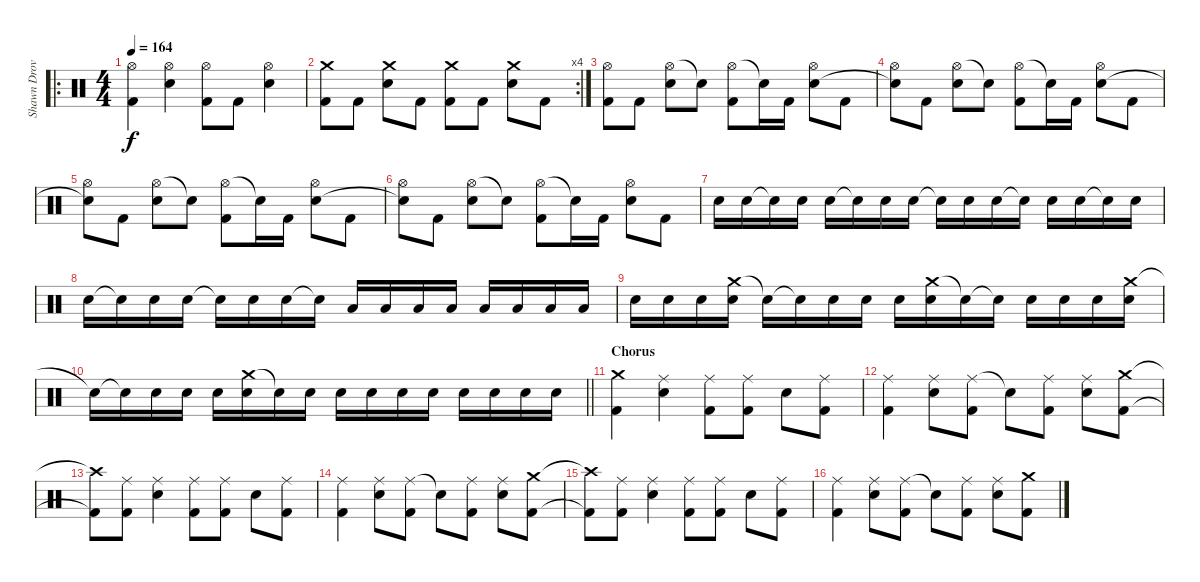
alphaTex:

\track ("Shawn Drover" "Shawn Drov") {instrument percussion}
\staff {score}
\articulation defaults
\ro
\ts (4 4)
\tempo 164
\clef neutral
\ks c
("Hi-Hat (open)" "Kick (hit) 2").4{dy f} ("Hi-Hat (open)" "Snare (hit) 2").4 ("Hi-Hat (open)" "Kick (hit) 2").8 "Kick (hit) 2".8 ("Hi-Hat (open)" "Snare (hit) 2").4 |
\rc 4
("Crash medium (hit)" "Kick (hit) 2").8 "Kick (hit) 2".8 ("Crash medium (hit)" "Snare (hit) 2").8 "Kick (hit) 2".8 ("Crash medium (hit)" "Kick (hit) 2").8 "Kick (hit) 2".8 ("Crash medium (hit)" "Snare (hit) 2").8 "Kick (hit) 2".8 |
("Hi-Hat (open)" "Kick (hit) 2").8 "Kick (hit) 2".8 ("Hi-Hat (open)" "Snare (hit) 2").8 "Snare (hit)"{t}.8 ("Hi-Hat (open)" "Kick (hit) 2").8 "Snare (hit)"{t}.16 "Kick (hit) 2".16 ("Hi-Hat (open)" "Snare (hit) 2").8 "Kick (hit) 2".8 |
("Hi-Hat (open)" "Snare (hit)"{t}).8 "Kick (hit) 2".8 ("Hi-Hat (open)" "Snare (hit) 2").8 "Snare (hit)"{t}.8 ("Hi-Hat (open)" "Kick (hit) 2").8 "Snare (hit)"{t}.16 "Kick (hit) 2".16 ("Hi-Hat (open)" "Snare (hit) 2").8 "Kick (hit) 2".8 |
("Hi-Hat (open)" "Snare (hit)"{t}).8 "Kick (hit) 2".8 ("Hi-Hat (open)" "Snare (hit) 2").8 "Snare (hit)"{t}.8 ("Hi-Hat (open)" "Kick (hit) 2").8 "Snare (hit)"{t}.16 "Kick (hit) 2".16 ("Hi-Hat (open)" "Snare (hit) 2").8 "Kick (hit) 2".8 |
("Hi-Hat (open)" "Snare (hit)"{t}).8 "Kick (hit) 2".8 ("Hi-Hat (open)" "Snare (hit) 2").8 "Snare (hit)"{t}.8 ("Hi-Hat (open)" "Kick (hit) 2").8 "Snare (hit)"{t}.16 "Kick (hit) 2".16 ("Hi-Hat (open)" "Snare (hit) 2").8 "Kick (hit) 2".8 |
"Snare (hit) 2".16 "Snare (hit) 2".16 "Snare (hit)"{t}.16 "Snare (hit) 2".16 "Snare (hit) 2".16 "Snare (hit)"{t}.16 "Snare (hit) 2".16 "Snare (hit) 2".16 "Snare (hit)"{t}.16 "Snare (hit) 2".16 "Snare (hit) 2".16 "Snare (hit)"{t}.16 "Snare (hit) 2".16 "Snare (hit) 2".16 "Snare (hit)"{t}.16 "Snare (hit) 2".16 |
"Snare (hit) 2".16 "Snare (hit)"{t}.16 "Snare (hit) 2".16 "Snare (hit) 2".16 "Snare (hit)"{t}.16 "Snare (hit) 2".16 "Snare (hit) 2".16 "Snare (hit)"{t}.16 "Low Tom (hit)".16 "Low Tom (hit)".16 "Low Tom (hit)".16 "Low Tom (hit)".16 "Low Tom (hit)".16 "Low Tom (hit)".16 "Low Tom (hit)".16 "Low Tom (hit)".16 |
"Snare (hit) 2".16 "Snare (hit) 2".16 "Snare (hit) 2".16 ("Crash medium (hit)" "Snare (hit) 2").16 "Snare (hit)"{t}.16 "Snare (hit)"{t}.16 "Snare (hit) 2".16 "Snare (hit) 2".16 "Snare (hit) 2".16 ("Crash medium (hit)" "Snare (hit) 2").16 "Snare (hit)"{t}.16 "Snare (hit) 2"{t}.16 "Snare (hit) 2".16 "Snare (hit) 2".16 "Snare (hit) 2".16 ("Crash medium (hit)" "Snare (hit) 2").16 |
\barLineRight lightlight "Snare (hit)"{t}.16 "Snare (hit)"{t}.16 "Snare (hit) 2".16 "Snare (hit) 2".16 "Snare (hit) 2".16
("Crash medium (hit)" "Snare (hit) 2").16 "Snare (hit)"{t}.16 "Snare (hit) 2".16 "Snare (hit) 2".16 "Snare (hit) 2".16 "Snare (hit) 2".16 "Snare (hit) 2".16 "Snare (hit) 2".16 "Snare (hit) 2".16 "Snare (hit) 2".16 "Snare (hit) 2".16 |
\section ("" "Chorus")
("Crash medium (hit)" "Kick (hit) 2").4 ("Ride (middle)" "Snare (hit) 2").4 ("Ride (middle)" "Kick (hit) 2").8 ("Ride (middle)" "Kick (hit) 2").8 "Snare (hit) 2".8 ("Ride (middle)" "Kick (hit) 2").8 |
("Ride (middle)" "Kick (hit) 2").4 ("Ride (middle)" "Snare (hit) 2").8 ("Ride (middle)" "Kick (hit) 2").8 "Snare (hit)"{t}.8 ("Ride (middle)" "Kick (hit) 2").8 ("Ride (middle)" "Snare (hit) 2").8 ("Crash medium (hit)" "Kick (hit) 2").8 |
("Crash high (hit)"{t} "Kick (hit) 2"{t}).8 ("Ride (middle)" "Kick (hit) 2").8 ("Ride (middle)" "Snare (hit) 2").4 ("Ride (middle)" "Kick (hit) 2").8 ("Ride (middle)" "Kick (hit) 2").8 "Snare (hit) 2".8 ("Ride (middle)" "Kick (hit) 2").8 |
("Ride (middle)" "Kick (hit) 2").4 ("Ride (middle)" "Snare (hit) 2").8 ("Ride (middle)" "Kick (hit) 2").8 "Snare (hit)"{t}.8 ("Ride (middle)" "Kick (hit) 2").8 ("Ride (middle)" "Snare (hit) 2").8 ("Crash medium (hit)" "Kick (hit) 2").8 |
("Crash high (hit)"{t} "Kick (hit) 2"{t}).8 ("Ride (middle)" "Kick (hit) 2").8 ("Ride (middle)" "Snare (hit) 2").4 ("Ride (middle)" "Kick (hit) 2").8 ("Ride (middle)" "Kick (hit) 2").8 "Snare (hit) 2".8 ("Ride (middle)" "Kick (hit) 2").8 |
("Ride (middle)" "Kick (hit) 2").4 ("Ride (middle)" "Snare (hit) 2").8 ("Ride (middle)" "Kick (hit) 2").8 "Snare (hit)"{t}.8 ("Ride (middle)" "Kick (hit) 2").8 ("Ride (middle)" "Snare (hit) 2").8 ("Crash medium (hit)" "Kick (hit) 2").8
